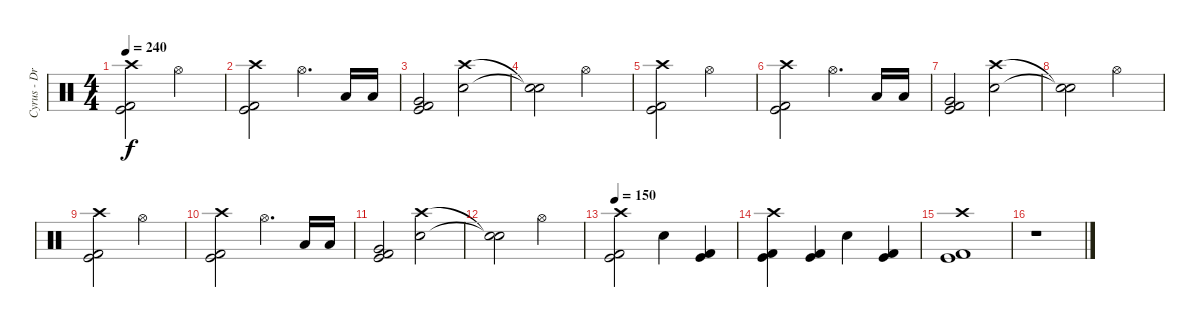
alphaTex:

\track ("Cyrus - Drums" "Cyrus - Dr") {instrument percussion}
\staff {score}
\articulation defaults
\ts (4 4)
\tempo 240
\clef neutral
\ks c
("Kick (hit)" "Kick (hit) 2" "Crash high (hit)").2{dy f} "Hi-Hat (open)".2 |
("Kick (hit)" "Kick (hit) 2" "Crash high (hit)").2 "Hi-Hat (open)".4{d} "Low Tom (hit)".16 "Low Tom (hit)".16 |
("Kick (hit)" "Kick (hit) 2" "Very Low Tom (hit)").2 ("Electric Snare (hit)" "Crash high (hit)").2 |
("Snare (hit)"{t} "Snare (hit)"{t}).2 "Hi-Hat (open)".2 |
("Kick (hit)" "Kick (hit) 2" "Crash high (hit)").2 "Hi-Hat (open)".2 |
("Kick (hit)" "Kick (hit) 2" "Crash high (hit)").2 "Hi-Hat (open)".4{d} "Low Tom (hit)".16 "Low Tom (hit)".16 |
("Kick (hit)" "Kick (hit) 2" "Very Low Tom (hit)").2 ("Electric Snare (hit)" "Crash high (hit)").2 |
("Snare (hit)"{t} "Snare (hit)"{t}).2 "Hi-Hat (open)".2 |
("Kick (hit)" "Kick (hit) 2" "Crash high (hit)").2 "Hi-Hat (open)".2 |
("Kick (hit)" "Kick (hit) 2" "Crash high (hit)").2 "Hi-Hat (open)".4{d} "Low Tom (hit)".16 "Low Tom (hit)".16 |
("Kick (hit)" "Kick (hit) 2" "Very Low Tom (hit)").2 ("Electric Snare (hit)" "Crash high (hit)").2 |
("Snare (hit)"{t} "Snare (hit)"{t}).2 "Hi-Hat (open)".2 |
\tempo 150
("Kick (hit)" "Kick (hit) 2" "Crash high (hit)").2 "Electric Snare (hit)".4 ("Kick (hit)" "Kick (hit) 2").4 |
("Kick (hit)" "Kick (hit) 2" "Crash high (hit)").4 ("Kick (hit)" "Kick (hit) 2").4 "Electric Snare (hit)".4 ("Kick (hit)" "Kick (hit) 2").4 |
("Kick (hit)" "Kick (hit) 2" "Crash high (hit)").1 |
r.1
